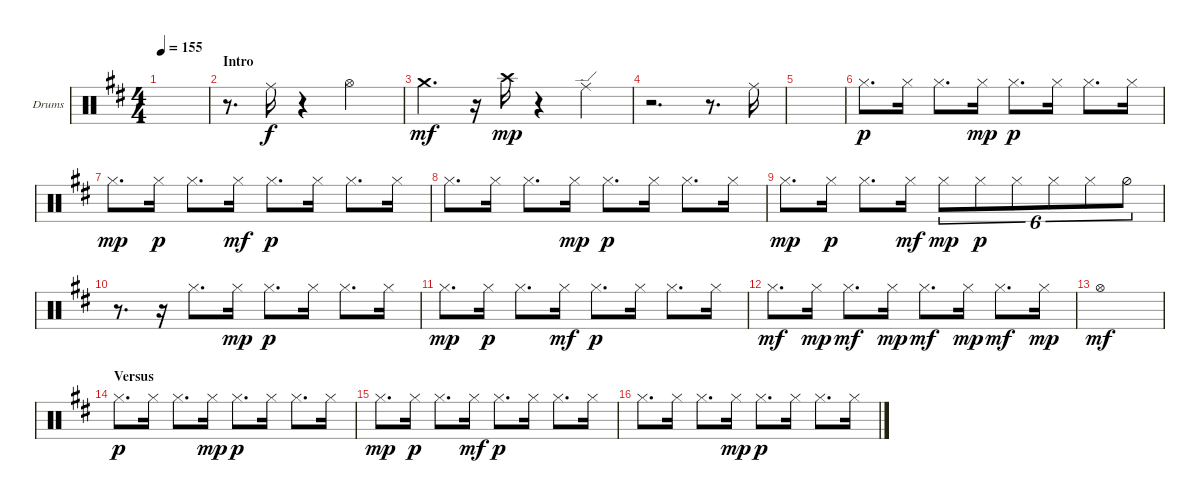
\bracketExtendMode groupsimilarinstruments
\firstSystemTrackNameOrientation horizontal
\otherSystemsTrackNameOrientation horizontal
\track ("Perc" "Drums") {instrument percussion}
\staff {score}
\articulation defaults
\ts (4 4)
\tempo 155
\clef neutral
\ks d
|
\section ("" "Intro")
r.8{d} "Ride (middle)".16 r.4 "Hi-Hat (open)".2 |
"Crash medium (hit)".4{d dy mf} r.16 "Crash high (hit)".16{dy mp} r.4 "Ride (edge)".4 |
r.2{d} r.8{d} "Ride (middle)".16 |
|
"Hi-Hat (closed)".8{d dy p} "Hi-Hat (closed)".16 "Hi-Hat (closed)".8{d} "Hi-Hat (closed)".16{dy mp} "Hi-Hat (closed)".8{d dy p} "Hi-Hat (closed)".16 "Hi-Hat (closed)".8{d} "Hi-Hat (closed)".16 |
"Hi-Hat (closed)".8{d dy mp} "Hi-Hat (closed)".16{dy p} "Hi-Hat (closed)".8{d} "Hi-Hat (closed)".16{dy mf} "Hi-Hat (closed)".8{d dy p} "Hi-Hat (closed)".16 "Hi-Hat (closed)".8{d} "Hi-Hat (closed)".16 |
"Hi-Hat (closed)".8{d} "Hi-Hat (closed)".16 "Hi-Hat (closed)".8{d} "Hi-Hat (closed)".16{dy mp} "Hi-Hat (closed)".8{d dy p} "Hi-Hat (closed)".16 "Hi-Hat (closed)".8{d} "Hi-Hat (closed)".16 |
"Hi-Hat (closed)".8{d dy mp} "Hi-Hat (closed)".16{dy p} "Hi-Hat (closed)".8{d} "Hi-Hat (closed)".16{dy mf} "Hi-Hat (closed)".8{tu (6 4) dy mp} "Hi-Hat (closed)".8{tu (6 4) dy p} "Hi-Hat (closed)".8{tu (6 4)} "Hi-Hat (closed)".8{tu (6 4)} "Hi-Hat (closed)".8{tu (6 4)} "Hi-Hat (half)".8{tu (6 4)} |
r.8{d} r.16 "Hi-Hat (closed)".8{d} "Hi-Hat (closed)".16{dy mp} "Hi-Hat (closed)".8{d dy p} "Hi-Hat (closed)".16 "Hi-Hat (closed)".8{d} "Hi-Hat (closed)".16 |
"Hi-Hat (closed)".8{d dy mp} "Hi-Hat (closed)".16{dy p} "Hi-Hat (closed)".8{d} "Hi-Hat (closed)".16{dy mf} "Hi-Hat (closed)".8{d dy p} "Hi-Hat (closed)".16 "Hi-Hat (closed)".8{d} "Hi-Hat (closed)".16 |
"Hi-Hat (closed)".8{d dy mf} "Hi-Hat (closed)".16{dy mp} "Hi-Hat (closed)".8{d dy mf} "Hi-Hat (closed)".16{dy mp} "Hi-Hat (closed)".8{d dy mf} "Hi-Hat (closed)".16{dy mp} "Hi-Hat (closed)".8{d dy mf} "Hi-Hat (closed)".16{dy mp} |
"Hi-Hat (open)".1{dy mf} |
\section ("" "Versus")
"Hi-Hat (closed)".8{d dy p} "Hi-Hat (closed)".16 "Hi-Hat (closed)".8{d} "Hi-Hat (closed)".16{dy mp} "Hi-Hat (closed)".8{d dy p} "Hi-Hat (closed)".16 "Hi-Hat (closed)".8{d} "Hi-Hat (closed)".16 |
"Hi-Hat (closed)".8{d dy mp} "Hi-Hat (closed)".16{dy p} "Hi-Hat (closed)".8{d} "Hi-Hat (closed)".16{dy mf} "Hi-Hat (closed)".8{d dy p} "Hi-Hat (closed)".16 "Hi-Hat (closed)".8{d} "Hi-Hat (closed)".16 |
"Hi-Hat (closed)".8{d} "Hi-Hat (closed)".16 "Hi-Hat (closed)".8{d} "Hi-Hat (closed)".16{dy mp} "Hi-Hat (closed)".8{d dy p} "Hi-Hat (closed)".16 "Hi-Hat (closed)".8{d} "Hi-Hat (closed)".16
